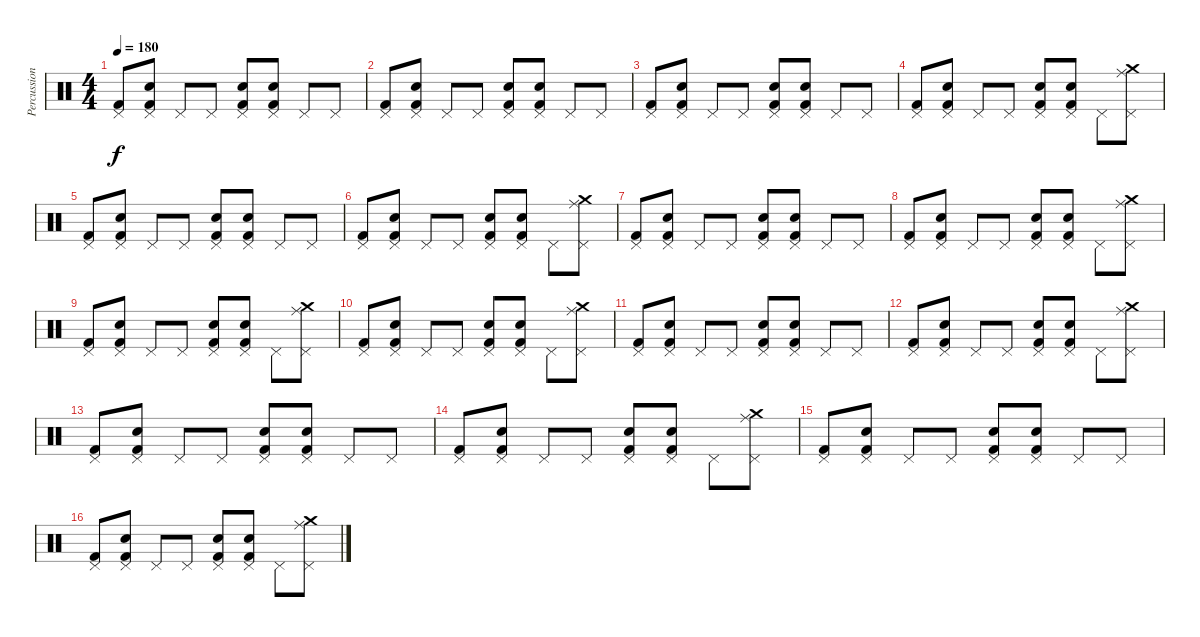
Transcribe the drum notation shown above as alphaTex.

\track ("Percussion" "Percussion") {instrument percussion}
\staff {score}
\articulation defaults
\ts (4 4)
\tempo 180
\clef neutral
\ks c
("Pedal Hi-Hat (hit)" "Kick (hit) 2").8{dy f} ("Pedal Hi-Hat (hit)" "Snare (hit) 2" "Kick (hit) 2").8 "Pedal Hi-Hat (hit)".8 "Pedal Hi-Hat (hit)".8 ("Pedal Hi-Hat (hit)" "Snare (hit) 2" "Kick (hit) 2").8 ("Pedal Hi-Hat (hit)" "Snare (hit) 2" "Kick (hit) 2").8 "Pedal Hi-Hat (hit)".8 "Pedal Hi-Hat (hit)".8 |
("Pedal Hi-Hat (hit)" "Kick (hit) 2").8 ("Pedal Hi-Hat (hit)" "Snare (hit) 2" "Kick (hit) 2").8 "Pedal Hi-Hat (hit)".8 "Pedal Hi-Hat (hit)".8 ("Pedal Hi-Hat (hit)" "Snare (hit) 2" "Kick (hit) 2").8 ("Pedal Hi-Hat (hit)" "Snare (hit) 2" "Kick (hit) 2").8 "Pedal Hi-Hat (hit)".8 "Pedal Hi-Hat (hit)".8 |
("Pedal Hi-Hat (hit)" "Kick (hit) 2").8 ("Pedal Hi-Hat (hit)" "Snare (hit) 2" "Kick (hit) 2").8 "Pedal Hi-Hat (hit)".8 "Pedal Hi-Hat (hit)".8 ("Pedal Hi-Hat (hit)" "Snare (hit) 2" "Kick (hit) 2").8 ("Pedal Hi-Hat (hit)" "Snare (hit) 2" "Kick (hit) 2").8 "Pedal Hi-Hat (hit)".8 "Pedal Hi-Hat (hit)".8 |
("Pedal Hi-Hat (hit)" "Kick (hit) 2").8 ("Pedal Hi-Hat (hit)" "Snare (hit) 2" "Kick (hit) 2").8 "Pedal Hi-Hat (hit)".8 "Pedal Hi-Hat (hit)".8 ("Pedal Hi-Hat (hit)" "Snare (hit) 2" "Kick (hit) 2").8 ("Pedal Hi-Hat (hit)" "Snare (hit) 2" "Kick (hit) 2").8 "Pedal Hi-Hat (hit)".8 ("Pedal Hi-Hat (hit)" "Ride (middle)" "Crash medium (hit)").8 |
("Pedal Hi-Hat (hit)" "Kick (hit) 2").8 ("Pedal Hi-Hat (hit)" "Snare (hit) 2" "Kick (hit) 2").8 "Pedal Hi-Hat (hit)".8 "Pedal Hi-Hat (hit)".8 ("Pedal Hi-Hat (hit)" "Snare (hit) 2" "Kick (hit) 2").8 ("Pedal Hi-Hat (hit)" "Snare (hit) 2" "Kick (hit) 2").8 "Pedal Hi-Hat (hit)".8 "Pedal Hi-Hat (hit)".8 |
("Pedal Hi-Hat (hit)" "Kick (hit) 2").8 ("Pedal Hi-Hat (hit)" "Snare (hit) 2" "Kick (hit) 2").8 "Pedal Hi-Hat (hit)".8 "Pedal Hi-Hat (hit)".8 ("Pedal Hi-Hat (hit)" "Snare (hit) 2" "Kick (hit) 2").8 ("Pedal Hi-Hat (hit)" "Snare (hit) 2" "Kick (hit) 2").8 "Pedal Hi-Hat (hit)".8 ("Pedal Hi-Hat (hit)" "Ride (middle)" "Crash medium (hit)").8 |
("Pedal Hi-Hat (hit)" "Kick (hit) 2").8 ("Pedal Hi-Hat (hit)" "Snare (hit) 2" "Kick (hit) 2").8 "Pedal Hi-Hat (hit)".8 "Pedal Hi-Hat (hit)".8 ("Pedal Hi-Hat (hit)" "Snare (hit) 2" "Kick (hit) 2").8 ("Pedal Hi-Hat (hit)" "Snare (hit) 2" "Kick (hit) 2").8 "Pedal Hi-Hat (hit)".8 "Pedal Hi-Hat (hit)".8 |
("Pedal Hi-Hat (hit)" "Kick (hit) 2").8 ("Pedal Hi-Hat (hit)" "Snare (hit) 2" "Kick (hit) 2").8 "Pedal Hi-Hat (hit)".8 "Pedal Hi-Hat (hit)".8 ("Pedal Hi-Hat (hit)" "Snare (hit) 2" "Kick (hit) 2").8 ("Pedal Hi-Hat (hit)" "Snare (hit) 2" "Kick (hit) 2").8 "Pedal Hi-Hat (hit)".8 ("Pedal Hi-Hat (hit)" "Ride (middle)" "Crash medium (hit)").8 |
("Pedal Hi-Hat (hit)" "Kick (hit) 2").8 ("Pedal Hi-Hat (hit)" "Snare (hit) 2" "Kick (hit) 2").8 "Pedal Hi-Hat (hit)".8 "Pedal Hi-Hat (hit)".8 ("Pedal Hi-Hat (hit)" "Snare (hit) 2" "Kick (hit) 2").8 ("Pedal Hi-Hat (hit)" "Snare (hit) 2" "Kick (hit) 2").8 "Pedal Hi-Hat (hit)".8 ("Pedal Hi-Hat (hit)" "Ride (middle)" "Crash medium (hit)").8 |
("Pedal Hi-Hat (hit)" "Kick (hit) 2").8 ("Pedal Hi-Hat (hit)" "Snare (hit) 2" "Kick (hit) 2").8 "Pedal Hi-Hat (hit)".8 "Pedal Hi-Hat (hit)".8 ("Pedal Hi-Hat (hit)" "Snare (hit) 2" "Kick (hit) 2").8 ("Pedal Hi-Hat (hit)" "Snare (hit) 2" "Kick (hit) 2").8 "Pedal Hi-Hat (hit)".8 ("Pedal Hi-Hat (hit)" "Ride (middle)" "Crash medium (hit)").8 |
("Pedal Hi-Hat (hit)" "Kick (hit) 2").8 ("Pedal Hi-Hat (hit)" "Snare (hit) 2" "Kick (hit) 2").8 "Pedal Hi-Hat (hit)".8 "Pedal Hi-Hat (hit)".8 ("Pedal Hi-Hat (hit)" "Snare (hit) 2" "Kick (hit) 2").8 ("Pedal Hi-Hat (hit)" "Snare (hit) 2" "Kick (hit) 2").8 "Pedal Hi-Hat (hit)".8 "Pedal Hi-Hat (hit)".8 |
("Pedal Hi-Hat (hit)" "Kick (hit) 2").8 ("Pedal Hi-Hat (hit)" "Snare (hit) 2" "Kick (hit) 2").8 "Pedal Hi-Hat (hit)".8 "Pedal Hi-Hat (hit)".8 ("Pedal Hi-Hat (hit)" "Snare (hit) 2" "Kick (hit) 2").8 ("Pedal Hi-Hat (hit)" "Snare (hit) 2" "Kick (hit) 2").8 "Pedal Hi-Hat (hit)".8 ("Pedal Hi-Hat (hit)" "Ride (middle)" "Crash medium (hit)").8 |
("Pedal Hi-Hat (hit)" "Kick (hit) 2").8 ("Pedal Hi-Hat (hit)" "Snare (hit) 2" "Kick (hit) 2").8 "Pedal Hi-Hat (hit)".8 "Pedal Hi-Hat (hit)".8 ("Pedal Hi-Hat (hit)" "Snare (hit) 2" "Kick (hit) 2").8 ("Pedal Hi-Hat (hit)" "Snare (hit) 2" "Kick (hit) 2").8 "Pedal Hi-Hat (hit)".8 "Pedal Hi-Hat (hit)".8 |
("Pedal Hi-Hat (hit)" "Kick (hit) 2").8 ("Pedal Hi-Hat (hit)" "Snare (hit) 2" "Kick (hit) 2").8 "Pedal Hi-Hat (hit)".8 "Pedal Hi-Hat (hit)".8 ("Pedal Hi-Hat (hit)" "Snare (hit) 2" "Kick (hit) 2").8 ("Pedal Hi-Hat (hit)" "Snare (hit) 2" "Kick (hit) 2").8 "Pedal Hi-Hat (hit)".8 ("Pedal Hi-Hat (hit)" "Ride (middle)" "Crash medium (hit)").8 |
("Pedal Hi-Hat (hit)" "Kick (hit) 2").8 ("Pedal Hi-Hat (hit)" "Snare (hit) 2" "Kick (hit) 2").8 "Pedal Hi-Hat (hit)".8 "Pedal Hi-Hat (hit)".8 ("Pedal Hi-Hat (hit)" "Snare (hit) 2" "Kick (hit) 2").8 ("Pedal Hi-Hat (hit)" "Snare (hit) 2" "Kick (hit) 2").8 "Pedal Hi-Hat (hit)".8 "Pedal Hi-Hat (hit)".8 |
("Pedal Hi-Hat (hit)" "Kick (hit) 2").8 ("Pedal Hi-Hat (hit)" "Snare (hit) 2" "Kick (hit) 2").8 "Pedal Hi-Hat (hit)".8 "Pedal Hi-Hat (hit)".8 ("Pedal Hi-Hat (hit)" "Snare (hit) 2" "Kick (hit) 2").8 ("Pedal Hi-Hat (hit)" "Snare (hit) 2" "Kick (hit) 2").8 "Pedal Hi-Hat (hit)".8 ("Pedal Hi-Hat (hit)" "Ride (middle)" "Crash medium (hit)").8
